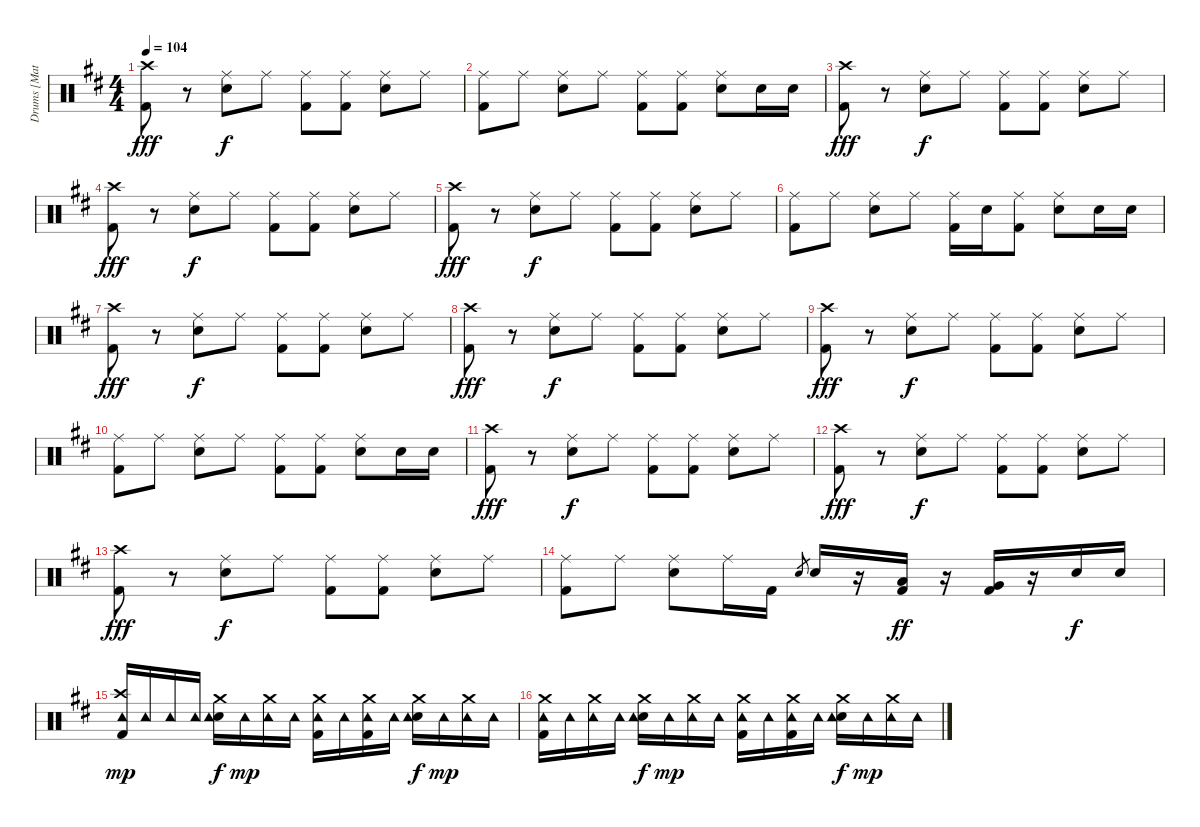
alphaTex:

\track ("Drums [Matt]" "Drums [Mat") {instrument percussion}
\staff {score}
\articulation defaults
\ts (4 4)
\tempo 104
\clef neutral
\ks d
("Kick (hit) 2" "Crash high (hit)").8{dy fff} r.8 ("Ride (middle)" "Snare (hit) 2").8{dy f} "Ride (middle)".8 ("Ride (middle)" "Kick (hit) 2").8 ("Ride (middle)" "Kick (hit) 2").8 ("Ride (middle)" "Snare (hit) 2").8 "Ride (middle)".8 |
("Ride (middle)" "Kick (hit) 2").8 "Ride (middle)".8 ("Ride (middle)" "Snare (hit) 2").8 "Ride (middle)".8 ("Ride (middle)" "Kick (hit) 2").8 ("Ride (middle)" "Kick (hit) 2").8 ("Ride (middle)" "Snare (hit) 2").8 "Snare (hit) 2".16 "Snare (hit) 2".16 |
("Kick (hit) 2" "Crash high (hit)").8{dy fff} r.8 ("Ride (middle)" "Snare (hit) 2").8{dy f} "Ride (middle)".8 ("Ride (middle)" "Kick (hit) 2").8 ("Ride (middle)" "Kick (hit) 2").8 ("Ride (middle)" "Snare (hit) 2").8 "Ride (middle)".8 |
("Kick (hit) 2" "Crash high (hit)").8{dy fff} r.8 ("Ride (middle)" "Snare (hit) 2").8{dy f} "Ride (middle)".8 ("Ride (middle)" "Kick (hit) 2").8 ("Ride (middle)" "Kick (hit) 2").8 ("Ride (middle)" "Snare (hit) 2").8 "Ride (middle)".8 |
("Kick (hit) 2" "Crash high (hit)").8{dy fff} r.8 ("Ride (middle)" "Snare (hit) 2").8{dy f} "Ride (middle)".8 ("Ride (middle)" "Kick (hit) 2").8 ("Ride (middle)" "Kick (hit) 2").8 ("Ride (middle)" "Snare (hit) 2").8 "Ride (middle)".8 |
("Ride (middle)" "Kick (hit) 2").8 "Ride (middle)".8 ("Ride (middle)" "Snare (hit) 2").8 "Ride (middle)".8 ("Ride (middle)" "Kick (hit) 2").16 "Snare (hit) 2".16 ("Ride (middle)" "Kick (hit) 2").8 ("Ride (middle)" "Snare (hit) 2").8 "Snare (hit) 2".16 "Snare (hit) 2".16 |
("Kick (hit) 2" "Crash high (hit)").8{dy fff} r.8 ("Ride (middle)" "Snare (hit) 2").8{dy f} "Ride (middle)".8 ("Ride (middle)" "Kick (hit) 2").8 ("Ride (middle)" "Kick (hit) 2").8 ("Ride (middle)" "Snare (hit) 2").8 "Ride (middle)".8 |
("Kick (hit) 2" "Crash high (hit)").8{dy fff} r.8 ("Ride (middle)" "Snare (hit) 2").8{dy f} "Ride (middle)".8 ("Ride (middle)" "Kick (hit) 2").8 ("Ride (middle)" "Kick (hit) 2").8 ("Ride (middle)" "Snare (hit) 2").8 "Ride (middle)".8 |
("Kick (hit) 2" "Crash high (hit)").8{dy fff} r.8 ("Ride (middle)" "Snare (hit) 2").8{dy f} "Ride (middle)".8 ("Ride (middle)" "Kick (hit) 2").8 ("Ride (middle)" "Kick (hit) 2").8 ("Ride (middle)" "Snare (hit) 2").8 "Ride (middle)".8 |
("Ride (middle)" "Kick (hit) 2").8 "Ride (middle)".8 ("Ride (middle)" "Snare (hit) 2").8 "Ride (middle)".8 ("Ride (middle)" "Kick (hit) 2").8 ("Ride (middle)" "Kick (hit) 2").8 ("Ride (middle)" "Snare (hit) 2").8 "Snare (hit) 2".16 "Snare (hit) 2".16 |
("Kick (hit) 2" "Crash high (hit)").8{dy fff} r.8 ("Ride (middle)" "Snare (hit) 2").8{dy f} "Ride (middle)".8 ("Ride (middle)" "Kick (hit) 2").8 ("Ride (middle)" "Kick (hit) 2").8 ("Ride (middle)" "Snare (hit) 2").8 "Ride (middle)".8 |
("Kick (hit) 2" "Crash high (hit)").8{dy fff} r.8 ("Ride (middle)" "Snare (hit) 2").8{dy f} "Ride (middle)".8 ("Ride (middle)" "Kick (hit) 2").8 ("Ride (middle)" "Kick (hit) 2").8 ("Ride (middle)" "Snare (hit) 2").8 "Ride (middle)".8 |
("Kick (hit) 2" "Crash high (hit)").8{dy fff} r.8 ("Ride (middle)" "Snare (hit) 2").8{dy f} "Ride (middle)".8 ("Ride (middle)" "Kick (hit) 2").8 ("Ride (middle)" "Kick (hit) 2").8 ("Ride (middle)" "Snare (hit) 2").8 "Ride (middle)".8 |
("Ride (middle)" "Kick (hit) 2").8 "Ride (middle)".8 ("Ride (middle)" "Snare (hit) 2").8 "Ride (middle)".16 "Kick (hit) 2".16 "Snare (hit) 2".8{gr} "Snare (hit) 2".16 r.16 ("Kick (hit) 2" "Low Tom (hit)").16{dy ff} r.16 ("Kick (hit) 2" "Very Low Tom (hit)").16 r.16 "Snare (hit) 2".16{dy f} "Snare (hit) 2".16 |
("Kick (hit) 2" "Crash high (hit)" "Tambourine (hit)").16{dy mp} "Tambourine (hit)".16 "Tambourine (hit)".16 "Tambourine (hit)".16 ("Crash medium (hit)" "Snare (hit) 2" "Tambourine (hit)").16{dy f} "Tambourine (hit)".16{dy mp} ("Crash medium (hit)" "Tambourine (hit)").16 "Tambourine (hit)".16 ("Crash medium (hit)" "Kick (hit) 2" "Tambourine (hit)").16 "Tambourine (hit)".16 ("Crash medium (hit)" "Kick (hit) 2" "Tambourine (hit)").16 "Tambourine (hit)".16 ("Crash medium (hit)" "Snare (hit) 2" "Tambourine (hit)").16{dy f} "Tambourine (hit)".16{dy mp} ("Crash medium (hit)" "Tambourine (hit)").16 "Tambourine (hit)".16 |
("Crash medium (hit)" "Kick (hit) 2" "Tambourine (hit)").16 "Tambourine (hit)".16 ("Crash medium (hit)" "Tambourine (hit)").16 "Tambourine (hit)".16 ("Crash medium (hit)" "Snare (hit) 2" "Tambourine (hit)").16{dy f} "Tambourine (hit)".16{dy mp} ("Crash medium (hit)" "Tambourine (hit)").16 "Tambourine (hit)".16 ("Crash medium (hit)" "Kick (hit) 2" "Tambourine (hit)").16 "Tambourine (hit)".16 ("Crash medium (hit)" "Kick (hit) 2" "Tambourine (hit)").16 "Tambourine (hit)".16 ("Crash medium (hit)" "Snare (hit) 2" "Tambourine (hit)").16{dy f} "Tambourine (hit)".16{dy mp} ("Crash medium (hit)" "Tambourine (hit)").16 "Tambourine (hit)".16
